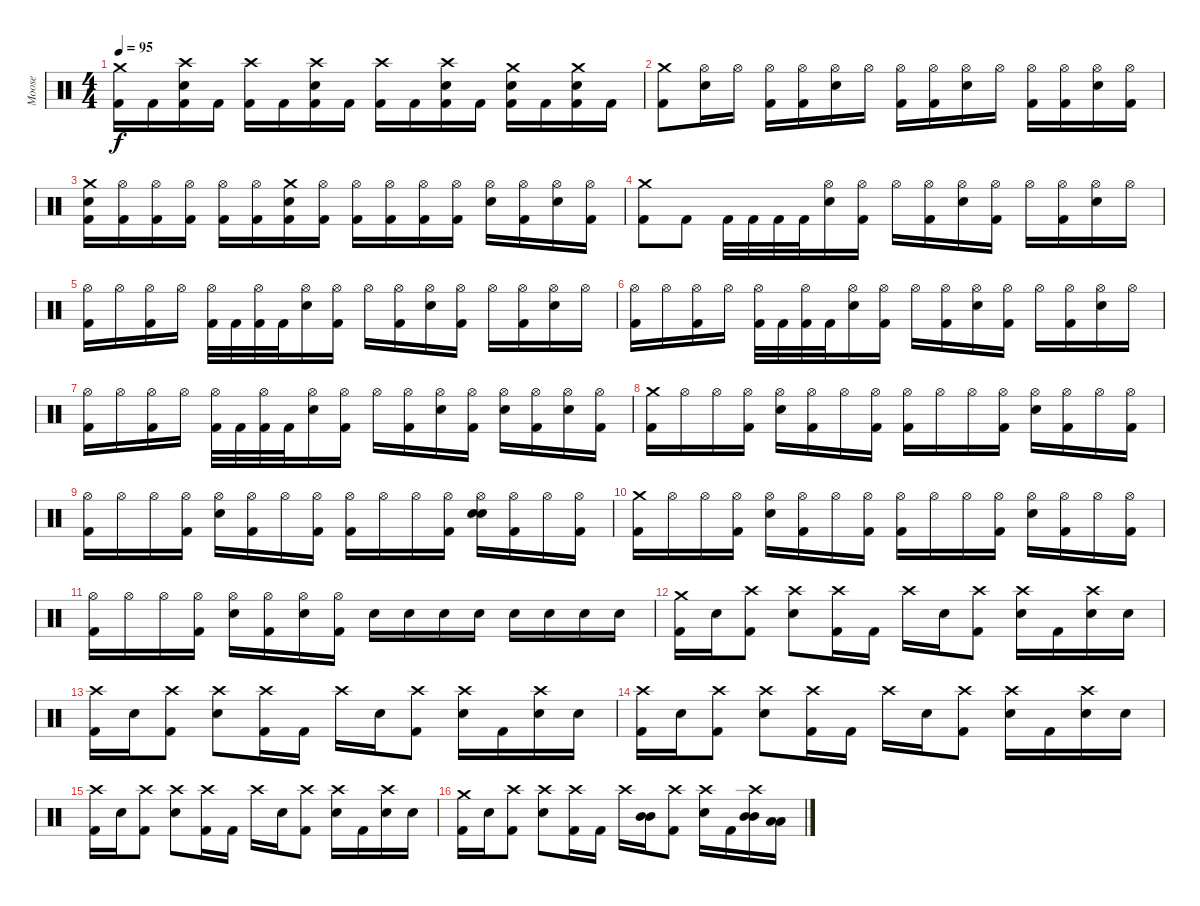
\track ("Moose" "Moose") {instrument percussion}
\staff {score}
\articulation defaults
\ts (4 4)
\tempo 95
\clef neutral
\ks c
("Crash medium (hit)" "Kick (hit) 2").16{dy f} "Kick (hit) 2".16 ("Crash high (hit)" "Electric Snare (hit)" "Kick (hit) 2").16 "Kick (hit) 2".16 ("Crash high (hit)" "Kick (hit) 2").16 "Kick (hit) 2".16 ("Crash high (hit)" "Electric Snare (hit)" "Kick (hit) 2").16 "Kick (hit) 2".16 ("Crash high (hit)" "Kick (hit) 2").16 "Kick (hit) 2".16 ("Crash high (hit)" "Electric Snare (hit)" "Kick (hit) 2").16 "Kick (hit) 2".16 ("Crash medium (hit)" "Electric Snare (hit)" "Kick (hit) 2").16 "Kick (hit) 2".16 ("Crash medium (hit)" "Electric Snare (hit)" "Kick (hit) 2").16 "Kick (hit) 2".16 |
("Crash medium (hit)" "Kick (hit) 2").8 ("Hi-Hat (open)" "Electric Snare (hit)").16 "Hi-Hat (open)".16 ("Hi-Hat (open)" "Kick (hit) 2").16 ("Hi-Hat (open)" "Kick (hit) 2").16 ("Hi-Hat (open)" "Electric Snare (hit)").16 "Hi-Hat (open)".16 ("Hi-Hat (open)" "Kick (hit) 2").16 ("Hi-Hat (open)" "Kick (hit) 2").16 ("Hi-Hat (open)" "Electric Snare (hit)").16 "Hi-Hat (open)".16 ("Hi-Hat (open)" "Kick (hit) 2").16 ("Hi-Hat (open)" "Kick (hit) 2").16 ("Hi-Hat (open)" "Electric Snare (hit)").16 ("Hi-Hat (open)" "Kick (hit) 2").16 |
("Crash medium (hit)" "Electric Snare (hit)" "Kick (hit) 2").16 ("Hi-Hat (open)" "Kick (hit) 2").16 ("Hi-Hat (open)" "Kick (hit) 2").16 ("Hi-Hat (open)" "Kick (hit) 2").16 ("Hi-Hat (open)" "Kick (hit) 2").16 ("Hi-Hat (open)" "Kick (hit) 2").16 ("Crash medium (hit)" "Electric Snare (hit)" "Kick (hit) 2").16 ("Hi-Hat (open)" "Kick (hit) 2").16 ("Hi-Hat (open)" "Kick (hit) 2").16 ("Hi-Hat (open)" "Kick (hit) 2").16 ("Hi-Hat (open)" "Kick (hit) 2").16 ("Hi-Hat (open)" "Kick (hit) 2").16 ("Hi-Hat (open)" "Electric Snare (hit)").16 ("Hi-Hat (open)" "Kick (hit) 2").16 ("Hi-Hat (open)" "Electric Snare (hit)").16 ("Hi-Hat (open)" "Kick (hit) 2").16 |
("Crash medium (hit)" "Kick (hit) 2").8 "Kick (hit) 2".8 "Kick (hit) 2".32 "Kick (hit) 2".32 "Kick (hit) 2".32 "Kick (hit) 2".32 ("Hi-Hat (open)" "Electric Snare (hit)").16 ("Hi-Hat (open)" "Kick (hit) 2").16 "Hi-Hat (open)".16 ("Hi-Hat (open)" "Kick (hit) 2").16 ("Hi-Hat (open)" "Electric Snare (hit)").16 ("Hi-Hat (open)" "Kick (hit) 2").16 "Hi-Hat (open)".16 ("Hi-Hat (open)" "Kick (hit) 2").16 ("Hi-Hat (open)" "Electric Snare (hit)").16 "Hi-Hat (open)".16 |
("Hi-Hat (open)" "Kick (hit) 2").16 "Hi-Hat (open)".16 ("Hi-Hat (open)" "Kick (hit) 2").16 "Hi-Hat (open)".16 ("Hi-Hat (open)" "Kick (hit) 2").32 "Kick (hit) 2".32 ("Hi-Hat (open)" "Kick (hit) 2").32 "Kick (hit) 2".32 ("Hi-Hat (open)" "Electric Snare (hit)").16 ("Hi-Hat (open)" "Kick (hit) 2").16 "Hi-Hat (open)".16 ("Hi-Hat (open)" "Kick (hit) 2").16 ("Hi-Hat (open)" "Electric Snare (hit)").16 ("Hi-Hat (open)" "Kick (hit) 2").16 "Hi-Hat (open)".16 ("Hi-Hat (open)" "Kick (hit) 2").16 ("Hi-Hat (open)" "Electric Snare (hit)").16 "Hi-Hat (open)".16 |
("Hi-Hat (open)" "Kick (hit) 2").16 "Hi-Hat (open)".16 ("Hi-Hat (open)" "Kick (hit) 2").16 "Hi-Hat (open)".16 ("Hi-Hat (open)" "Kick (hit) 2").32 "Kick (hit) 2".32 ("Hi-Hat (open)" "Kick (hit) 2").32 "Kick (hit) 2".32 ("Hi-Hat (open)" "Electric Snare (hit)").16 ("Hi-Hat (open)" "Kick (hit) 2").16 "Hi-Hat (open)".16 ("Hi-Hat (open)" "Kick (hit) 2").16 ("Hi-Hat (open)" "Electric Snare (hit)").16 ("Hi-Hat (open)" "Kick (hit) 2").16 "Hi-Hat (open)".16 ("Hi-Hat (open)" "Kick (hit) 2").16 ("Hi-Hat (open)" "Electric Snare (hit)").16 "Hi-Hat (open)".16 |
("Hi-Hat (open)" "Kick (hit) 2").16 "Hi-Hat (open)".16 ("Hi-Hat (open)" "Kick (hit) 2").16 "Hi-Hat (open)".16 ("Hi-Hat (open)" "Kick (hit) 2").32 "Kick (hit) 2".32 ("Hi-Hat (open)" "Kick (hit) 2").32 "Kick (hit) 2".32 ("Hi-Hat (open)" "Electric Snare (hit)").16 ("Hi-Hat (open)" "Kick (hit) 2").16 "Hi-Hat (open)".16 ("Hi-Hat (open)" "Kick (hit) 2").16 ("Hi-Hat (open)" "Electric Snare (hit)").16 ("Hi-Hat (open)" "Kick (hit) 2").16 ("Hi-Hat (open)" "Electric Snare (hit)").16 ("Hi-Hat (open)" "Kick (hit) 2").16 ("Hi-Hat (open)" "Electric Snare (hit)").16 ("Hi-Hat (open)" "Kick (hit) 2").16 |
("Crash medium (hit)" "Kick (hit) 2").16 "Hi-Hat (open)".16 "Hi-Hat (open)".16 ("Hi-Hat (open)" "Kick (hit) 2").16 ("Hi-Hat (open)" "Electric Snare (hit)").16 ("Hi-Hat (open)" "Kick (hit) 2").16 "Hi-Hat (open)".16 ("Hi-Hat (open)" "Kick (hit) 2").16 ("Hi-Hat (open)" "Kick (hit) 2").16 "Hi-Hat (open)".16 "Hi-Hat (open)".16 ("Hi-Hat (open)" "Kick (hit) 2").16 ("Hi-Hat (open)" "Electric Snare (hit)").16 ("Hi-Hat (open)" "Kick (hit) 2").16 "Hi-Hat (open)".16 ("Hi-Hat (open)" "Kick (hit) 2").16 |
("Hi-Hat (open)" "Kick (hit) 2").16 "Hi-Hat (open)".16 "Hi-Hat (open)".16 ("Hi-Hat (open)" "Kick (hit) 2").16 ("Hi-Hat (open)" "Electric Snare (hit)").16 ("Hi-Hat (open)" "Kick (hit) 2").16 "Hi-Hat (open)".16 ("Hi-Hat (open)" "Kick (hit) 2").16 ("Hi-Hat (open)" "Kick (hit) 2").16 "Hi-Hat (open)".16 "Hi-Hat (open)".16 ("Hi-Hat (open)" "Kick (hit) 2").16 ("Hi-Hat (open)" "Electric Snare (hit)" "Electric Snare (hit)").16 ("Hi-Hat (open)" "Kick (hit) 2").16 "Hi-Hat (open)".16 ("Hi-Hat (open)" "Kick (hit) 2").16 |
("Crash medium (hit)" "Kick (hit) 2").16 "Hi-Hat (open)".16 "Hi-Hat (open)".16 ("Hi-Hat (open)" "Kick (hit) 2").16 ("Hi-Hat (open)" "Electric Snare (hit)").16 ("Hi-Hat (open)" "Kick (hit) 2").16 "Hi-Hat (open)".16 ("Hi-Hat (open)" "Kick (hit) 2").16 ("Hi-Hat (open)" "Kick (hit) 2").16 "Hi-Hat (open)".16 "Hi-Hat (open)".16 ("Hi-Hat (open)" "Kick (hit) 2").16 ("Hi-Hat (open)" "Electric Snare (hit)").16 ("Hi-Hat (open)" "Kick (hit) 2").16 "Hi-Hat (open)".16 ("Hi-Hat (open)" "Kick (hit) 2").16 |
("Hi-Hat (open)" "Kick (hit) 2").16 "Hi-Hat (open)".16 "Hi-Hat (open)".16 ("Hi-Hat (open)" "Kick (hit) 2").16 ("Hi-Hat (open)" "Electric Snare (hit)").16 ("Hi-Hat (open)" "Kick (hit) 2").16 ("Hi-Hat (open)" "Electric Snare (hit)").16 ("Hi-Hat (open)" "Kick (hit) 2").16 "Electric Snare (hit)".16 "Electric Snare (hit)".16 "Electric Snare (hit)".16 "Electric Snare (hit)".16 "Electric Snare (hit)".16 "Electric Snare (hit)".16 "Electric Snare (hit)".16 "Electric Snare (hit)".16 |
("Crash medium (hit)" "Kick (hit) 2").16 "Electric Snare (hit)".16 ("Crash high (hit)" "Kick (hit) 2").8 ("Crash high (hit)" "Electric Snare (hit)").8 ("Crash high (hit)" "Kick (hit) 2").16 "Kick (hit) 2".16 "Crash high (hit)".16 "Electric Snare (hit)".16 ("Crash high (hit)" "Kick (hit) 2").8 ("Crash high (hit)" "Electric Snare (hit)").16 "Kick (hit) 2".16 ("Crash high (hit)" "Electric Snare (hit)").16 "Electric Snare (hit)".16 |
("Crash high (hit)" "Kick (hit) 2").16 "Electric Snare (hit)".16 ("Crash high (hit)" "Kick (hit) 2").8 ("Crash high (hit)" "Electric Snare (hit)").8 ("Crash high (hit)" "Kick (hit) 2").16 "Kick (hit) 2".16 "Crash high (hit)".16 "Electric Snare (hit)".16 ("Crash high (hit)" "Kick (hit) 2").8 ("Crash high (hit)" "Electric Snare (hit)").16 "Kick (hit) 2".16 ("Crash high (hit)" "Electric Snare (hit)").16 "Electric Snare (hit)".16 |
("Crash high (hit)" "Kick (hit) 2").16 "Electric Snare (hit)".16 ("Crash high (hit)" "Kick (hit) 2").8 ("Crash high (hit)" "Electric Snare (hit)").8 ("Crash high (hit)" "Kick (hit) 2").16 "Kick (hit) 2".16 "Crash high (hit)".16 "Electric Snare (hit)".16 ("Crash high (hit)" "Kick (hit) 2").8 ("Crash high (hit)" "Electric Snare (hit)").16 "Kick (hit) 2".16 ("Crash high (hit)" "Electric Snare (hit)").16 "Electric Snare (hit)".16 |
("Crash high (hit)" "Kick (hit) 2").16 "Electric Snare (hit)".16 ("Crash high (hit)" "Kick (hit) 2").8 ("Crash high (hit)" "Electric Snare (hit)").8 ("Crash high (hit)" "Kick (hit) 2").16 "Kick (hit) 2".16 "Crash high (hit)".16 "Electric Snare (hit)".16 ("Crash high (hit)" "Kick (hit) 2").8 ("Crash high (hit)" "Electric Snare (hit)").16 "Kick (hit) 2".16 ("Crash high (hit)" "Electric Snare (hit)").16 "Electric Snare (hit)".16 |
("Crash medium (hit)" "Kick (hit) 2").16 "Electric Snare (hit)".16 ("Crash high (hit)" "Kick (hit) 2").8 ("Crash high (hit)" "Electric Snare (hit)").8 ("Crash high (hit)" "Kick (hit) 2").16 "Kick (hit) 2".16 "Crash high (hit)".16 ("Mid Tom (hit)" "Mid Tom (hit)").16 ("Crash high (hit)" "Kick (hit) 2").8 ("Crash high (hit)" "Electric Snare (hit)").16 "Kick (hit) 2".16 ("Crash high (hit)" "Mid Tom (hit)" "Mid Tom (hit)").16 ("Low Tom (hit)" "Low Tom (hit)").16
